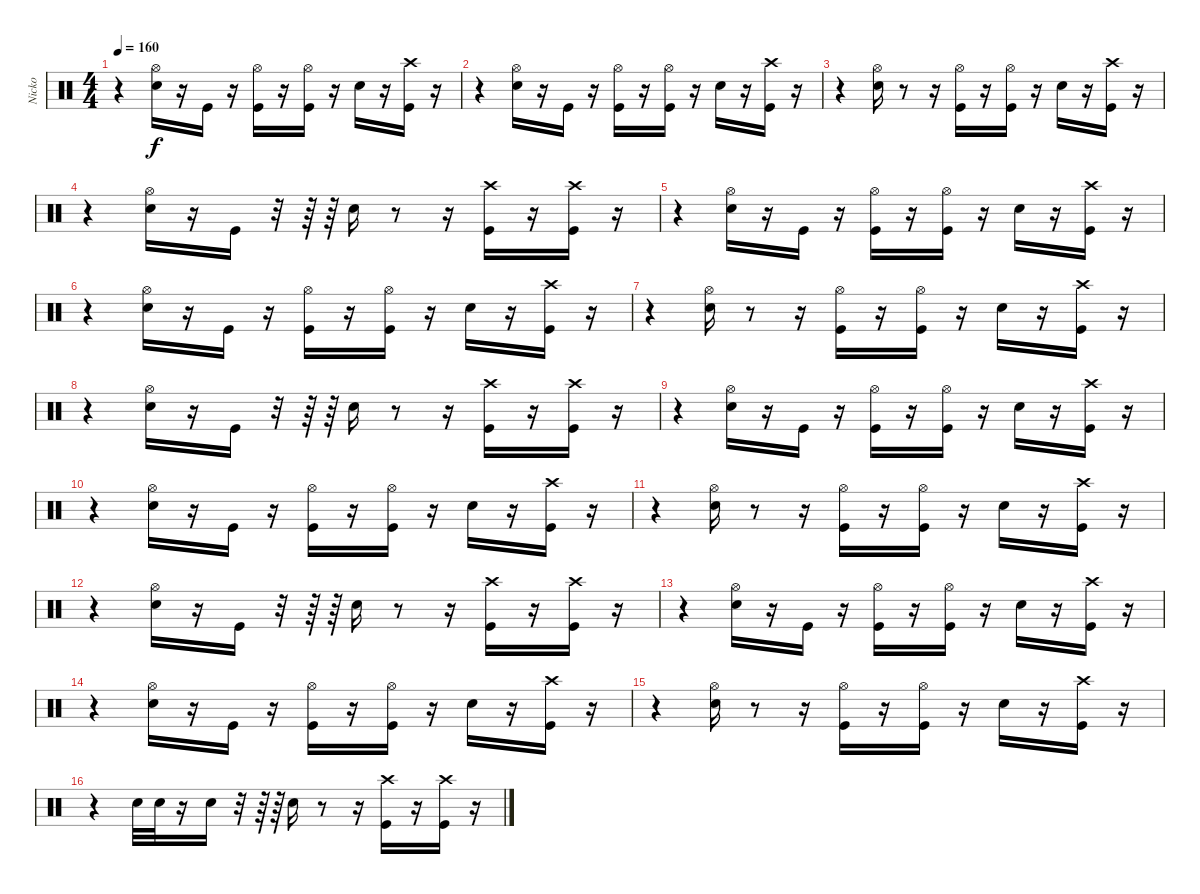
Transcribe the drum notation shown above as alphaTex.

\track ("Nicko" "Nicko") {instrument percussion}
\staff {score}
\articulation defaults
\ts (4 4)
\tempo 160
\clef neutral
\ks c
r.4{dy f} ("Snare (hit) 2" "Hi-Hat (open)").16 r.16 "Kick (hit)".16 r.16 ("Hi-Hat (open)" "Kick (hit)").16 r.16 ("Kick (hit)" "Hi-Hat (open)").16 r.16 "Snare (hit) 2".16 r.16 ("Kick (hit)" "Crash high (hit)").16 r.16 |
r.4 ("Snare (hit) 2" "Hi-Hat (open)").16 r.16 "Kick (hit)".16 r.16 ("Hi-Hat (open)" "Kick (hit)").16 r.16 ("Kick (hit)" "Hi-Hat (open)").16 r.16 "Snare (hit) 2".16 r.16 ("Kick (hit)" "Crash high (hit)").16 r.16 |
r.4 ("Snare (hit) 2" "Hi-Hat (open)").16 r.8 r.16 ("Hi-Hat (open)" "Kick (hit)").16 r.16 ("Hi-Hat (open)" "Kick (hit)").16 r.16 "Snare (hit) 2".16 r.16 ("Kick (hit)" "Crash high (hit)").16 r.16 |
r.4 ("Hi-Hat (open)" "Snare (hit) 2").16 r.16 "Kick (hit)".16 r.32 r.64 r.64 "Snare (hit) 2".16 r.8 r.16 ("Kick (hit)" "Crash high (hit)").16 r.16 ("Kick (hit)" "Crash high (hit)").16 r.16 |
r.4 ("Snare (hit) 2" "Hi-Hat (open)").16 r.16 "Kick (hit)".16 r.16 ("Hi-Hat (open)" "Kick (hit)").16 r.16 ("Kick (hit)" "Hi-Hat (open)").16 r.16 "Snare (hit) 2".16 r.16 ("Kick (hit)" "Crash high (hit)").16 r.16 |
r.4 ("Snare (hit) 2" "Hi-Hat (open)").16 r.16 "Kick (hit)".16 r.16 ("Hi-Hat (open)" "Kick (hit)").16 r.16 ("Kick (hit)" "Hi-Hat (open)").16 r.16 "Snare (hit) 2".16 r.16 ("Kick (hit)" "Crash high (hit)").16 r.16 |
r.4 ("Snare (hit) 2" "Hi-Hat (open)").16 r.8 r.16 ("Hi-Hat (open)" "Kick (hit)").16 r.16 ("Hi-Hat (open)" "Kick (hit)").16 r.16 "Snare (hit) 2".16 r.16 ("Kick (hit)" "Crash high (hit)").16 r.16 |
r.4 ("Hi-Hat (open)" "Snare (hit) 2").16 r.16 "Kick (hit)".16 r.32 r.64 r.64 "Snare (hit) 2".16 r.8 r.16 ("Kick (hit)" "Crash high (hit)").16 r.16 ("Kick (hit)" "Crash high (hit)").16 r.16 |
r.4 ("Snare (hit) 2" "Hi-Hat (open)").16 r.16 "Kick (hit)".16 r.16 ("Hi-Hat (open)" "Kick (hit)").16 r.16 ("Kick (hit)" "Hi-Hat (open)").16 r.16 "Snare (hit) 2".16 r.16 ("Kick (hit)" "Crash high (hit)").16 r.16 |
r.4 ("Snare (hit) 2" "Hi-Hat (open)").16 r.16 "Kick (hit)".16 r.16 ("Hi-Hat (open)" "Kick (hit)").16 r.16 ("Kick (hit)" "Hi-Hat (open)").16 r.16 "Snare (hit) 2".16 r.16 ("Kick (hit)" "Crash high (hit)").16 r.16 |
r.4 ("Snare (hit) 2" "Hi-Hat (open)").16 r.8 r.16 ("Hi-Hat (open)" "Kick (hit)").16 r.16 ("Hi-Hat (open)" "Kick (hit)").16 r.16 "Snare (hit) 2".16 r.16 ("Kick (hit)" "Crash high (hit)").16 r.16 |
r.4 ("Hi-Hat (open)" "Snare (hit) 2").16 r.16 "Kick (hit)".16 r.32 r.64 r.64 "Snare (hit) 2".16 r.8 r.16 ("Kick (hit)" "Crash high (hit)").16 r.16 ("Kick (hit)" "Crash high (hit)").16 r.16 |
r.4 ("Snare (hit) 2" "Hi-Hat (open)").16 r.16 "Kick (hit)".16 r.16 ("Hi-Hat (open)" "Kick (hit)").16 r.16 ("Kick (hit)" "Hi-Hat (open)").16 r.16 "Snare (hit) 2".16 r.16 ("Kick (hit)" "Crash high (hit)").16 r.16 |
r.4 ("Snare (hit) 2" "Hi-Hat (open)").16 r.16 "Kick (hit)".16 r.16 ("Hi-Hat (open)" "Kick (hit)").16 r.16 ("Kick (hit)" "Hi-Hat (open)").16 r.16 "Snare (hit) 2".16 r.16 ("Kick (hit)" "Crash high (hit)").16 r.16 |
r.4 ("Snare (hit) 2" "Hi-Hat (open)").16 r.8 r.16 ("Hi-Hat (open)" "Kick (hit)").16 r.16 ("Hi-Hat (open)" "Kick (hit)").16 r.16 "Snare (hit) 2".16 r.16 ("Kick (hit)" "Crash high (hit)").16 r.16 |
r.4 "Snare (hit) 2".32 "Snare (hit) 2".32 r.16 "Snare (hit) 2".16 r.32 r.64 r.64 "Snare (hit) 2".16 r.8 r.16 ("Kick (hit)" "Crash high (hit)").16 r.16 ("Kick (hit)" "Crash high (hit)").16 r.16
